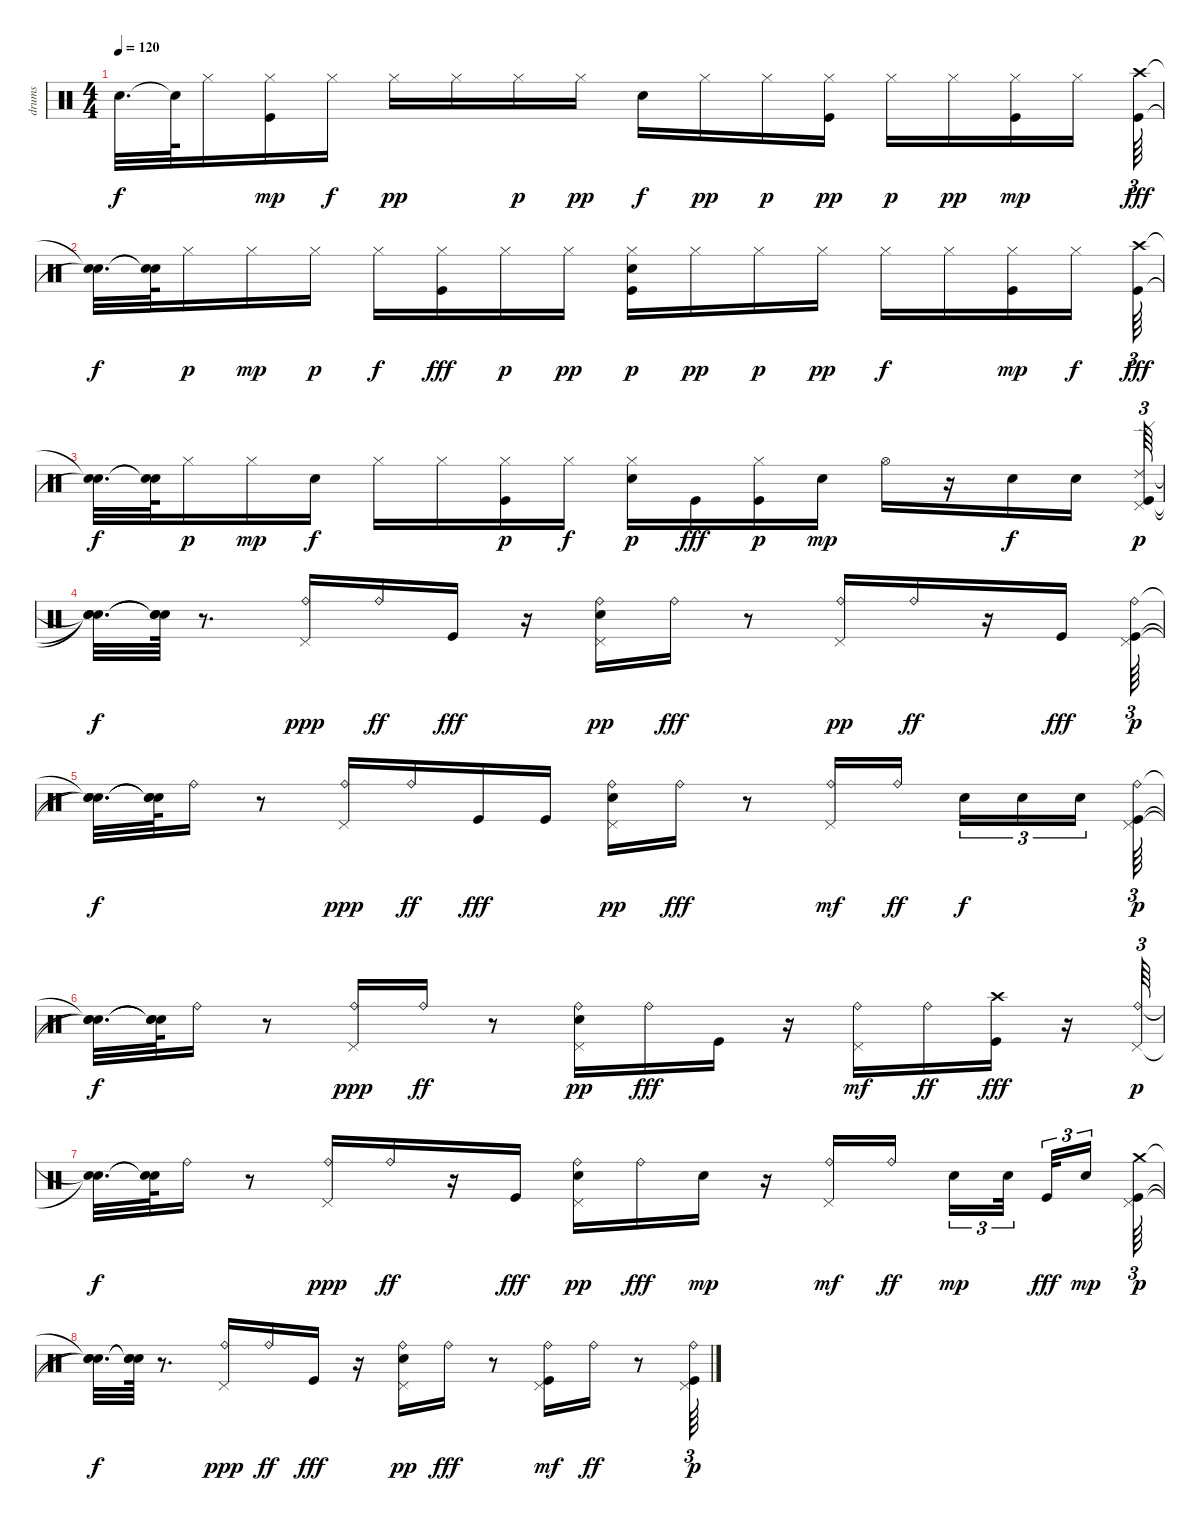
\track ("drums" "drums") {instrument percussion}
\staff {score}
\articulation defaults
\ts (4 4)
\tempo 120
\clef neutral
\ks c "Snare (hit)"{t}.32{d dy f} "Snare (hit)"{t}.64 "Hi-Hat (closed)".16
("Kick (hit)" "Hi-Hat (closed)").16{dy mp} "Hi-Hat (closed)".16{dy f} "Hi-Hat (closed)".16{dy pp} "Hi-Hat (closed)".16 "Hi-Hat (closed)".16{dy p} "Hi-Hat (closed)".16{dy pp} "Snare (hit) 2".16{dy f} "Hi-Hat (closed)".16{dy pp} "Hi-Hat (closed)".16{dy p} ("Kick (hit)" "Hi-Hat (closed)").16{dy pp} "Hi-Hat (closed)".16{dy p} "Hi-Hat (closed)".16{dy pp} ("Kick (hit)" "Hi-Hat (closed)").16{dy mp} "Hi-Hat (closed)".16 ("Kick (hit)" "Crash high (hit)").64{tu (3 2) dy fff} |
("Snare (hit)"{t} "Snare (hit)"{t}).32{d dy f} ("Snare (hit)"{t} "Snare (hit)"{t}).64 "Hi-Hat (closed)".16{dy p} "Hi-Hat (closed)".16{dy mp} "Hi-Hat (closed)".16{dy p} "Hi-Hat (closed)".16{dy f} ("Kick (hit)" "Hi-Hat (closed)").16{dy fff} "Hi-Hat (closed)".16{dy p} "Hi-Hat (closed)".16{dy pp} ("Kick (hit)" "Snare (hit) 2" "Hi-Hat (closed)").16{dy p} "Hi-Hat (closed)".16{dy pp} "Hi-Hat (closed)".16{dy p} "Hi-Hat (closed)".16{dy pp} "Hi-Hat (closed)".16{dy f} "Hi-Hat (closed)".16 ("Kick (hit)" "Hi-Hat (closed)").16{dy mp} "Hi-Hat (closed)".16{dy f} ("Kick (hit)" "Crash high (hit)").64{tu (3 2) dy fff} |
("Snare (hit)"{t} "Snare (hit)"{t}).32{d dy f} ("Snare (hit)"{t} "Snare (hit)"{t}).64 "Hi-Hat (closed)".16{dy p} "Hi-Hat (closed)".16{dy mp} "Snare (hit) 2".16{dy f} "Hi-Hat (closed)".16 "Hi-Hat (closed)".16 ("Kick (hit)" "Hi-Hat (closed)").16{dy p} "Hi-Hat (closed)".16{dy f} ("Snare (hit) 2" "Hi-Hat (closed)").16{dy p} "Kick (hit)".16{dy fff} ("Kick (hit)" "Hi-Hat (closed)").16{dy p} "Snare (hit) 2".16{dy mp} "Hi-Hat (open)".16 r.16 "Snare (hit) 2".16{dy f} "Snare (hit) 2".16 ("Kick (hit)" "Pedal Hi-Hat (hit)" "Ride (edge) 2").64{tu (3 2) dy p} |
("Snare (hit)"{t} "Snare (hit)"{t} "Snare (hit)"{t}).32{d dy f} ("Snare (hit)"{t} "Snare (hit)"{t} "Snare (hit)"{t}).64 r.8{d} ("Ride (bell)" "Pedal Hi-Hat (hit)").16{dy ppp} "Ride (bell)".16{dy ff} "Kick (hit)".16{dy fff} r.16 ("Snare (hit) 2" "Ride (bell)" "Pedal Hi-Hat (hit)").16{dy pp} "Ride (bell)".16{dy fff} r.8 ("Ride (bell)" "Pedal Hi-Hat (hit)").16{dy pp} "Ride (bell)".16{dy ff} r.16 "Kick (hit)".16{dy fff} ("Kick (hit)" "Pedal Hi-Hat (hit)" "Ride (bell)").64{tu (3 2) dy p} |
("Snare (hit)"{t} "Snare (hit)"{t} "Snare (hit)"{t}).32{d dy f} ("Snare (hit)"{t} "Snare (hit)"{t} "Snare (hit)"{t}).64 "Ride (bell)".16 r.8 ("Pedal Hi-Hat (hit)" "Ride (bell)").16{dy ppp} "Ride (bell)".16{dy ff} "Kick (hit)".16{dy fff} "Kick (hit)".16 ("Snare (hit) 2" "Pedal Hi-Hat (hit)" "Ride (bell)").16{dy pp} "Ride (bell)".16{dy fff} r.8 ("Pedal Hi-Hat (hit)" "Ride (bell)").16{dy mf} "Ride (bell)".16{dy ff beam splitsecondary} "Snare (hit) 2".16{tu (3 2) dy f} "Snare (hit) 2".16{tu (3 2)} "Snare (hit) 2".16{tu (3 2)} ("Kick (hit)" "Pedal Hi-Hat (hit)" "Ride (bell)").64{tu (3 2) dy p} |
("Snare (hit)"{t} "Snare (hit)"{t} "Snare (hit)"{t}).32{d dy f} ("Snare (hit)"{t} "Snare (hit)"{t} "Snare (hit)"{t}).64 "Ride (bell)".16 r.8 ("Pedal Hi-Hat (hit)" "Ride (bell)").16{dy ppp} "Ride (bell)".16{dy ff} r.8 ("Snare (hit) 2" "Pedal Hi-Hat (hit)" "Ride (bell)").16{dy pp} "Ride (bell)".16{dy fff} "Kick (hit)".16 r.16 ("Pedal Hi-Hat (hit)" "Ride (bell)").16{dy mf} "Ride (bell)".16{dy ff} ("Kick (hit)" "Crash high (hit)").16{dy fff} r.16 ("Pedal Hi-Hat (hit)" "Ride (bell)").64{tu (3 2) dy p} |
("Snare (hit)"{t} "Snare (hit)"{t}).32{d dy f} ("Snare (hit)"{t} "Snare (hit)"{t}).64 "Ride (bell)".16 r.8 ("Pedal Hi-Hat (hit)" "Ride (bell)").16{dy ppp} "Ride (bell)".16{dy ff} r.16 "Kick (hit)".16{dy fff} ("Snare (hit) 2" "Pedal Hi-Hat (hit)" "Ride (bell)").16{dy pp} "Ride (bell)".16{dy fff} "Snare (hit) 2".16{dy mp} r.16 ("Pedal Hi-Hat (hit)" "Ride (bell)").16{dy mf} "Ride (bell)".16{dy ff beam splitsecondary} "Snare (hit) 2".16{tu (3 2) dy mp} "Snare (hit) 2".32{tu (3 2) beam splitsecondary} "Kick (hit)".32{tu (3 2) dy fff} "Snare (hit) 2".16{tu (3 2) dy mp} ("Kick (hit)" "Crash medium (hit)" "Pedal Hi-Hat (hit)").64{tu (3 2) dy p} |
("Snare (hit)"{t} "Snare (hit)"{t} "Snare (hit)"{t}).32{d dy f} ("Snare (hit)"{t} "Snare (hit)"{t} "Snare (hit)"{t}).64 r.8{d} ("Pedal Hi-Hat (hit)" "Ride (bell)").16{dy ppp} "Ride (bell)".16{dy ff} "Kick (hit)".16{dy fff} r.16 ("Snare (hit) 2" "Pedal Hi-Hat (hit)" "Ride (bell)").16{dy pp} "Ride (bell)".16{dy fff} r.8 ("Kick (hit)" "Pedal Hi-Hat (hit)" "Ride (bell)").16{dy mf} "Ride (bell)".16{dy ff} r.8 ("Kick (hit)" "Pedal Hi-Hat (hit)" "Ride (bell)").64{tu (3 2) dy p}
